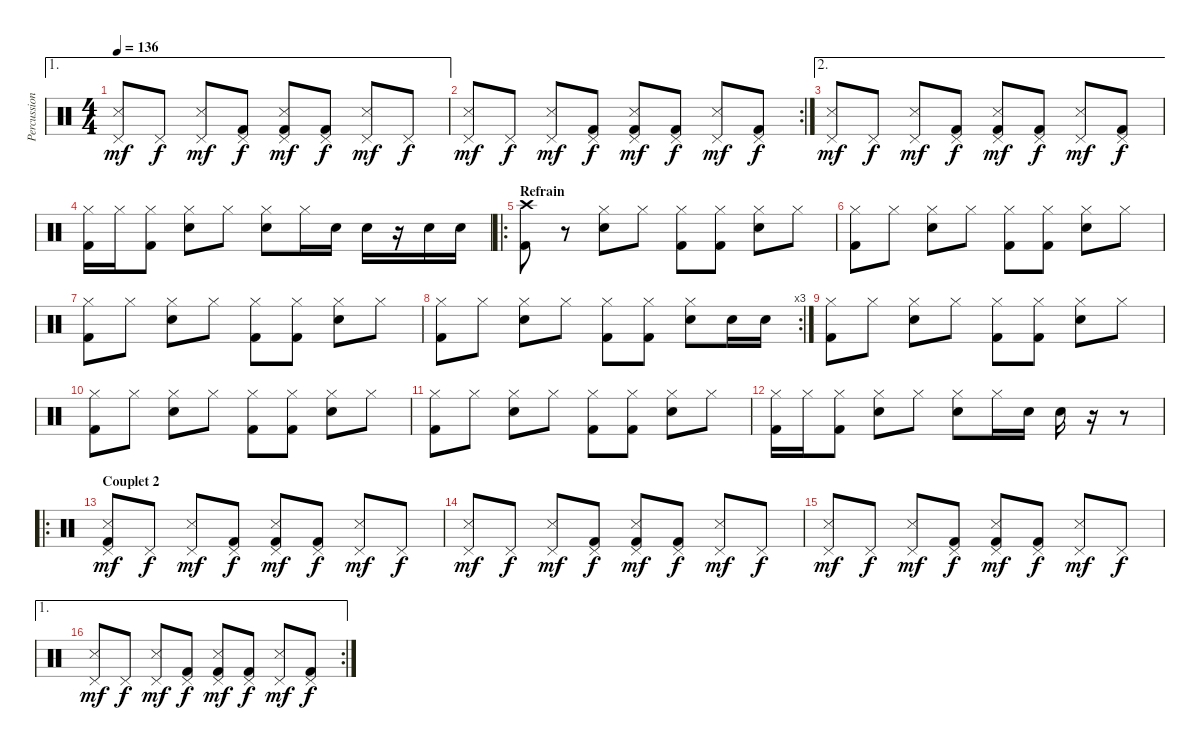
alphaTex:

\track ("Percussions" "Percussion") {instrument percussion}
\staff {score}
\articulation defaults
\ae 1
\ts (4 4)
\tempo 136
\clef neutral
\ks c
("Pedal Hi-Hat (hit)" "Snare (side stick) 3").8{dy mf} "Pedal Hi-Hat (hit)".8{dy f} ("Pedal Hi-Hat (hit)" "Snare (side stick) 3").8{dy mf} ("Pedal Hi-Hat (hit)" "Kick (hit) 2").8{dy f} ("Pedal Hi-Hat (hit)" "Snare (side stick) 3" "Kick (hit) 2").8{dy mf} ("Pedal Hi-Hat (hit)" "Kick (hit) 2").8{dy f} ("Pedal Hi-Hat (hit)" "Snare (side stick) 3").8{dy mf} "Pedal Hi-Hat (hit)".8{dy f} |
\rc 2
("Pedal Hi-Hat (hit)" "Snare (side stick) 3").8{dy mf} "Pedal Hi-Hat (hit)".8{dy f} ("Pedal Hi-Hat (hit)" "Snare (side stick) 3").8{dy mf} ("Pedal Hi-Hat (hit)" "Kick (hit) 2").8{dy f} ("Pedal Hi-Hat (hit)" "Snare (side stick) 3" "Kick (hit) 2").8{dy mf} ("Pedal Hi-Hat (hit)" "Kick (hit) 2").8{dy f} ("Pedal Hi-Hat (hit)" "Snare (side stick) 3").8{dy mf} ("Pedal Hi-Hat (hit)" "Kick (hit) 2").8{dy f} |
\ae 2
("Pedal Hi-Hat (hit)" "Snare (side stick) 3").8{dy mf} "Pedal Hi-Hat (hit)".8{dy f} ("Pedal Hi-Hat (hit)" "Snare (side stick) 3").8{dy mf} ("Pedal Hi-Hat (hit)" "Kick (hit) 2").8{dy f} ("Pedal Hi-Hat (hit)" "Snare (side stick) 3" "Kick (hit) 2").8{dy mf} ("Pedal Hi-Hat (hit)" "Kick (hit) 2").8{dy f} ("Pedal Hi-Hat (hit)" "Snare (side stick) 3").8{dy mf} ("Pedal Hi-Hat (hit)" "Kick (hit) 2").8{dy f} |
("Hi-Hat (closed)" "Kick (hit) 2").16 "Hi-Hat (closed)".16 ("Hi-Hat (closed)" "Kick (hit) 2").8 ("Hi-Hat (closed)" "Electric Snare (hit)").8 "Hi-Hat (closed)".8 ("Hi-Hat (closed)" "Electric Snare (hit)").8 "Hi-Hat (closed)".16 "Electric Snare (hit)".16 "Snare (hit) 2".16 r.16 "Electric Snare (hit)".16 "Snare (hit) 2".16 |
\ro
\section ("" "Refrain")
("Crash high (hit)" "Kick (hit) 2").8 r.8 ("Hi-Hat (closed)" "Electric Snare (hit)").8 "Hi-Hat (closed)".8 ("Hi-Hat (closed)" "Kick (hit) 2").8 ("Hi-Hat (closed)" "Kick (hit) 2").8 ("Hi-Hat (closed)" "Electric Snare (hit)").8 "Hi-Hat (closed)".8 |
("Hi-Hat (closed)" "Kick (hit) 2").8 "Hi-Hat (closed)".8 ("Hi-Hat (closed)" "Electric Snare (hit)").8 "Hi-Hat (closed)".8 ("Hi-Hat (closed)" "Kick (hit) 2").8 ("Hi-Hat (closed)" "Kick (hit) 2").8 ("Hi-Hat (closed)" "Electric Snare (hit)").8 "Hi-Hat (closed)".8 |
("Hi-Hat (closed)" "Kick (hit) 2").8 "Hi-Hat (closed)".8 ("Hi-Hat (closed)" "Electric Snare (hit)").8 "Hi-Hat (closed)".8 ("Hi-Hat (closed)" "Kick (hit) 2").8 ("Hi-Hat (closed)" "Kick (hit) 2").8 ("Hi-Hat (closed)" "Electric Snare (hit)").8 "Hi-Hat (closed)".8 |
\rc 3
("Hi-Hat (closed)" "Kick (hit) 2").8 "Hi-Hat (closed)".8 ("Hi-Hat (closed)" "Electric Snare (hit)").8 "Hi-Hat (closed)".8 ("Hi-Hat (closed)" "Kick (hit) 2").8 ("Hi-Hat (closed)" "Kick (hit) 2").8 ("Hi-Hat (closed)" "Electric Snare (hit)").8 "Electric Snare (hit)".16 "Electric Snare (hit)".16 |
("Hi-Hat (closed)" "Kick (hit) 2").8 "Hi-Hat (closed)".8 ("Hi-Hat (closed)" "Electric Snare (hit)").8 "Hi-Hat (closed)".8 ("Hi-Hat (closed)" "Kick (hit) 2").8 ("Hi-Hat (closed)" "Kick (hit) 2").8 ("Hi-Hat (closed)" "Electric Snare (hit)").8 "Hi-Hat (closed)".8 |
("Hi-Hat (closed)" "Kick (hit) 2").8 "Hi-Hat (closed)".8 ("Hi-Hat (closed)" "Electric Snare (hit)").8 "Hi-Hat (closed)".8 ("Hi-Hat (closed)" "Kick (hit) 2").8 ("Hi-Hat (closed)" "Kick (hit) 2").8 ("Hi-Hat (closed)" "Electric Snare (hit)").8 "Hi-Hat (closed)".8 |
("Hi-Hat (closed)" "Kick (hit) 2").8 "Hi-Hat (closed)".8 ("Hi-Hat (closed)" "Electric Snare (hit)").8 "Hi-Hat (closed)".8 ("Hi-Hat (closed)" "Kick (hit) 2").8 ("Hi-Hat (closed)" "Kick (hit) 2").8 ("Hi-Hat (closed)" "Electric Snare (hit)").8 "Hi-Hat (closed)".8 |
("Hi-Hat (closed)" "Kick (hit) 2").16 "Hi-Hat (closed)".16 ("Hi-Hat (closed)" "Kick (hit) 2").8 ("Hi-Hat (closed)" "Electric Snare (hit)").8 "Hi-Hat (closed)".8 ("Hi-Hat (closed)" "Electric Snare (hit)").8 "Hi-Hat (closed)".16 "Electric Snare (hit)".16 "Snare (hit) 2".16 r.16 r.8 |
\ro
\section ("" "Couplet 2")
("Pedal Hi-Hat (hit)" "Snare (side stick) 3" "Kick (hit) 2").8{dy mf} "Pedal Hi-Hat (hit)".8{dy f} ("Pedal Hi-Hat (hit)" "Snare (side stick) 3").8{dy mf} ("Pedal Hi-Hat (hit)" "Kick (hit) 2").8{dy f} ("Pedal Hi-Hat (hit)" "Snare (side stick) 3" "Kick (hit) 2").8{dy mf} ("Pedal Hi-Hat (hit)" "Kick (hit) 2").8{dy f} ("Pedal Hi-Hat (hit)" "Snare (side stick) 3").8{dy mf} "Pedal Hi-Hat (hit)".8{dy f} |
("Pedal Hi-Hat (hit)" "Snare (side stick) 3").8{dy mf} "Pedal Hi-Hat (hit)".8{dy f} ("Pedal Hi-Hat (hit)" "Snare (side stick) 3").8{dy mf} ("Pedal Hi-Hat (hit)" "Kick (hit) 2").8{dy f} ("Pedal Hi-Hat (hit)" "Snare (side stick) 3" "Kick (hit) 2").8{dy mf} ("Pedal Hi-Hat (hit)" "Kick (hit) 2").8{dy f} ("Pedal Hi-Hat (hit)" "Snare (side stick) 3").8{dy mf} "Pedal Hi-Hat (hit)".8{dy f} |
("Pedal Hi-Hat (hit)" "Snare (side stick) 3").8{dy mf} "Pedal Hi-Hat (hit)".8{dy f} ("Pedal Hi-Hat (hit)" "Snare (side stick) 3").8{dy mf} ("Pedal Hi-Hat (hit)" "Kick (hit) 2").8{dy f} ("Pedal Hi-Hat (hit)" "Snare (side stick) 3" "Kick (hit) 2").8{dy mf} ("Pedal Hi-Hat (hit)" "Kick (hit) 2").8{dy f} ("Pedal Hi-Hat (hit)" "Snare (side stick) 3").8{dy mf} "Pedal Hi-Hat (hit)".8{dy f} |
\ae 1
\rc 2
("Pedal Hi-Hat (hit)" "Snare (side stick) 3").8{dy mf} "Pedal Hi-Hat (hit)".8{dy f} ("Pedal Hi-Hat (hit)" "Snare (side stick) 3").8{dy mf} ("Pedal Hi-Hat (hit)" "Kick (hit) 2").8{dy f} ("Pedal Hi-Hat (hit)" "Snare (side stick) 3" "Kick (hit) 2").8{dy mf} ("Pedal Hi-Hat (hit)" "Kick (hit) 2").8{dy f} ("Pedal Hi-Hat (hit)" "Snare (side stick) 3").8{dy mf} ("Pedal Hi-Hat (hit)" "Kick (hit) 2").8{dy f}
